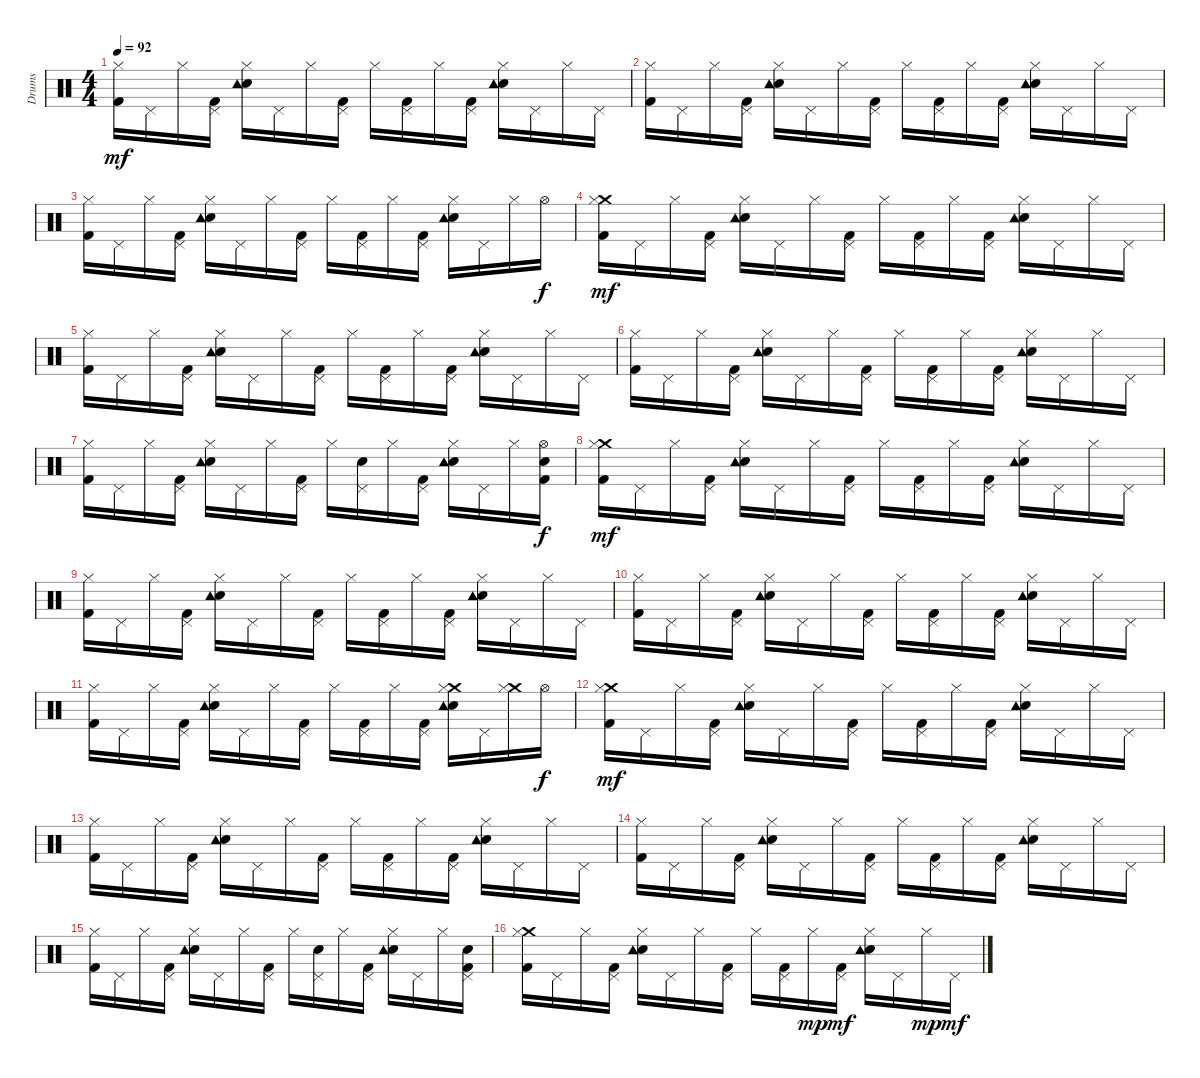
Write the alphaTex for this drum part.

\track ("Drums" "Drums") {instrument percussion}
\staff {score}
\articulation defaults
\ts (4 4)
\tempo 92
\clef neutral
\ks c
("Kick (hit) 2" "Hi-Hat (closed)").16{dy mf} "Pedal Hi-Hat (hit)".16 "Hi-Hat (closed)".16 ("Kick (hit) 2" "Pedal Hi-Hat (hit)").16 ("Electric Snare (hit)" "Hi-Hat (closed)" "Tambourine (hit)").16 "Pedal Hi-Hat (hit)".16 "Hi-Hat (closed)".16 ("Kick (hit) 2" "Pedal Hi-Hat (hit)").16 "Hi-Hat (closed)".16 ("Kick (hit) 2" "Pedal Hi-Hat (hit)").16 "Hi-Hat (closed)".16 ("Kick (hit) 2" "Pedal Hi-Hat (hit)").16 ("Electric Snare (hit)" "Hi-Hat (closed)" "Tambourine (hit)").16 "Pedal Hi-Hat (hit)".16 "Hi-Hat (closed)".16 "Pedal Hi-Hat (hit)".16 |
("Kick (hit) 2" "Hi-Hat (closed)").16 "Pedal Hi-Hat (hit)".16 "Hi-Hat (closed)".16 ("Kick (hit) 2" "Pedal Hi-Hat (hit)").16 ("Electric Snare (hit)" "Hi-Hat (closed)" "Tambourine (hit)").16 "Pedal Hi-Hat (hit)".16 "Hi-Hat (closed)".16 ("Kick (hit) 2" "Pedal Hi-Hat (hit)").16 "Hi-Hat (closed)".16 ("Kick (hit) 2" "Pedal Hi-Hat (hit)").16 "Hi-Hat (closed)".16 ("Kick (hit) 2" "Pedal Hi-Hat (hit)").16 ("Electric Snare (hit)" "Hi-Hat (closed)" "Tambourine (hit)").16 "Pedal Hi-Hat (hit)".16 "Hi-Hat (closed)".16 "Pedal Hi-Hat (hit)".16 |
("Kick (hit) 2" "Hi-Hat (closed)").16 "Pedal Hi-Hat (hit)".16 "Hi-Hat (closed)".16 ("Kick (hit) 2" "Pedal Hi-Hat (hit)").16 ("Electric Snare (hit)" "Hi-Hat (closed)" "Tambourine (hit)").16 "Pedal Hi-Hat (hit)".16 "Hi-Hat (closed)".16 ("Kick (hit) 2" "Pedal Hi-Hat (hit)").16 "Hi-Hat (closed)".16 ("Kick (hit) 2" "Pedal Hi-Hat (hit)").16 "Hi-Hat (closed)".16 ("Kick (hit) 2" "Pedal Hi-Hat (hit)").16 ("Electric Snare (hit)" "Hi-Hat (closed)" "Tambourine (hit)").16 "Pedal Hi-Hat (hit)".16 "Hi-Hat (closed)".16 "Hi-Hat (open)".16{dy f} |
("Kick (hit) 2" "Crash medium (hit)" "Hi-Hat (closed)").16{dy mf} "Pedal Hi-Hat (hit)".16 "Hi-Hat (closed)".16 ("Kick (hit) 2" "Pedal Hi-Hat (hit)").16 ("Electric Snare (hit)" "Hi-Hat (closed)" "Tambourine (hit)").16 "Pedal Hi-Hat (hit)".16 "Hi-Hat (closed)".16 ("Kick (hit) 2" "Pedal Hi-Hat (hit)").16 "Hi-Hat (closed)".16 ("Kick (hit) 2" "Pedal Hi-Hat (hit)").16 "Hi-Hat (closed)".16 ("Kick (hit) 2" "Pedal Hi-Hat (hit)").16 ("Electric Snare (hit)" "Hi-Hat (closed)" "Tambourine (hit)").16 "Pedal Hi-Hat (hit)".16 "Hi-Hat (closed)".16 "Pedal Hi-Hat (hit)".16 |
("Kick (hit) 2" "Hi-Hat (closed)").16 "Pedal Hi-Hat (hit)".16 "Hi-Hat (closed)".16 ("Kick (hit) 2" "Pedal Hi-Hat (hit)").16 ("Electric Snare (hit)" "Hi-Hat (closed)" "Tambourine (hit)").16 "Pedal Hi-Hat (hit)".16 "Hi-Hat (closed)".16 ("Kick (hit) 2" "Pedal Hi-Hat (hit)").16 "Hi-Hat (closed)".16 ("Kick (hit) 2" "Pedal Hi-Hat (hit)").16 "Hi-Hat (closed)".16 ("Kick (hit) 2" "Pedal Hi-Hat (hit)").16 ("Electric Snare (hit)" "Hi-Hat (closed)" "Tambourine (hit)").16 "Pedal Hi-Hat (hit)".16 "Hi-Hat (closed)".16 "Pedal Hi-Hat (hit)".16 |
("Kick (hit) 2" "Hi-Hat (closed)").16 "Pedal Hi-Hat (hit)".16 "Hi-Hat (closed)".16 ("Kick (hit) 2" "Pedal Hi-Hat (hit)").16 ("Electric Snare (hit)" "Hi-Hat (closed)" "Tambourine (hit)").16 "Pedal Hi-Hat (hit)".16 "Hi-Hat (closed)".16 ("Kick (hit) 2" "Pedal Hi-Hat (hit)").16 "Hi-Hat (closed)".16 ("Kick (hit) 2" "Pedal Hi-Hat (hit)").16 "Hi-Hat (closed)".16 ("Kick (hit) 2" "Pedal Hi-Hat (hit)").16 ("Electric Snare (hit)" "Hi-Hat (closed)" "Tambourine (hit)").16 "Pedal Hi-Hat (hit)".16 "Hi-Hat (closed)".16 "Pedal Hi-Hat (hit)".16 |
("Kick (hit) 2" "Hi-Hat (closed)").16 "Pedal Hi-Hat (hit)".16 "Hi-Hat (closed)".16 ("Kick (hit) 2" "Pedal Hi-Hat (hit)").16 ("Electric Snare (hit)" "Hi-Hat (closed)" "Tambourine (hit)").16 "Pedal Hi-Hat (hit)".16 "Hi-Hat (closed)".16 ("Kick (hit) 2" "Pedal Hi-Hat (hit)").16 "Hi-Hat (closed)".16 ("Electric Snare (hit)" "Pedal Hi-Hat (hit)").16 "Hi-Hat (closed)".16 ("Kick (hit) 2" "Pedal Hi-Hat (hit)").16 ("Electric Snare (hit)" "Hi-Hat (closed)" "Tambourine (hit)").16 "Pedal Hi-Hat (hit)".16 "Hi-Hat (closed)".16 ("Kick (hit) 2" "Hi-Hat (open)" "Electric Snare (hit)").16{dy f} |
("Kick (hit) 2" "Crash medium (hit)" "Hi-Hat (closed)").16{dy mf} "Pedal Hi-Hat (hit)".16 "Hi-Hat (closed)".16 ("Kick (hit) 2" "Pedal Hi-Hat (hit)").16 ("Electric Snare (hit)" "Hi-Hat (closed)" "Tambourine (hit)").16 "Pedal Hi-Hat (hit)".16 "Hi-Hat (closed)".16 ("Kick (hit) 2" "Pedal Hi-Hat (hit)").16 "Hi-Hat (closed)".16 ("Kick (hit) 2" "Pedal Hi-Hat (hit)").16 "Hi-Hat (closed)".16 ("Kick (hit) 2" "Pedal Hi-Hat (hit)").16 ("Electric Snare (hit)" "Hi-Hat (closed)" "Tambourine (hit)").16 "Pedal Hi-Hat (hit)".16 "Hi-Hat (closed)".16 "Pedal Hi-Hat (hit)".16 |
("Kick (hit) 2" "Hi-Hat (closed)").16 "Pedal Hi-Hat (hit)".16 "Hi-Hat (closed)".16 ("Kick (hit) 2" "Pedal Hi-Hat (hit)").16 ("Electric Snare (hit)" "Hi-Hat (closed)" "Tambourine (hit)").16 "Pedal Hi-Hat (hit)".16 "Hi-Hat (closed)".16 ("Kick (hit) 2" "Pedal Hi-Hat (hit)").16 "Hi-Hat (closed)".16 ("Kick (hit) 2" "Pedal Hi-Hat (hit)").16 "Hi-Hat (closed)".16 ("Kick (hit) 2" "Pedal Hi-Hat (hit)").16 ("Electric Snare (hit)" "Hi-Hat (closed)" "Tambourine (hit)").16 "Pedal Hi-Hat (hit)".16 "Hi-Hat (closed)".16 "Pedal Hi-Hat (hit)".16 |
("Kick (hit) 2" "Hi-Hat (closed)").16 "Pedal Hi-Hat (hit)".16 "Hi-Hat (closed)".16 ("Kick (hit) 2" "Pedal Hi-Hat (hit)").16 ("Electric Snare (hit)" "Hi-Hat (closed)" "Tambourine (hit)").16 "Pedal Hi-Hat (hit)".16 "Hi-Hat (closed)".16 ("Kick (hit) 2" "Pedal Hi-Hat (hit)").16 "Hi-Hat (closed)".16 ("Kick (hit) 2" "Pedal Hi-Hat (hit)").16 "Hi-Hat (closed)".16 ("Kick (hit) 2" "Pedal Hi-Hat (hit)").16 ("Electric Snare (hit)" "Hi-Hat (closed)" "Tambourine (hit)").16 "Pedal Hi-Hat (hit)".16 "Hi-Hat (closed)".16 "Pedal Hi-Hat (hit)".16 |
("Kick (hit) 2" "Hi-Hat (closed)").16 "Pedal Hi-Hat (hit)".16 "Hi-Hat (closed)".16 ("Kick (hit) 2" "Pedal Hi-Hat (hit)").16 ("Electric Snare (hit)" "Hi-Hat (closed)" "Tambourine (hit)").16 "Pedal Hi-Hat (hit)".16 "Hi-Hat (closed)".16 ("Kick (hit) 2" "Pedal Hi-Hat (hit)").16 "Hi-Hat (closed)".16 ("Kick (hit) 2" "Pedal Hi-Hat (hit)").16 "Hi-Hat (closed)".16 ("Kick (hit) 2" "Pedal Hi-Hat (hit)").16 ("Crash medium (hit)" "Electric Snare (hit)" "Hi-Hat (closed)" "Tambourine (hit)").16 "Pedal Hi-Hat (hit)".16 ("Crash medium (hit)" "Hi-Hat (closed)").16 "Hi-Hat (open)".16{dy f} |
("Kick (hit) 2" "Crash medium (hit)" "Hi-Hat (closed)").16{dy mf} "Pedal Hi-Hat (hit)".16 "Hi-Hat (closed)".16 ("Kick (hit) 2" "Pedal Hi-Hat (hit)").16 ("Electric Snare (hit)" "Hi-Hat (closed)" "Tambourine (hit)").16 "Pedal Hi-Hat (hit)".16 "Hi-Hat (closed)".16 ("Kick (hit) 2" "Pedal Hi-Hat (hit)").16 "Hi-Hat (closed)".16 ("Kick (hit) 2" "Pedal Hi-Hat (hit)").16 "Hi-Hat (closed)".16 ("Kick (hit) 2" "Pedal Hi-Hat (hit)").16 ("Electric Snare (hit)" "Hi-Hat (closed)" "Tambourine (hit)").16 "Pedal Hi-Hat (hit)".16 "Hi-Hat (closed)".16 "Pedal Hi-Hat (hit)".16 |
("Kick (hit) 2" "Hi-Hat (closed)").16 "Pedal Hi-Hat (hit)".16 "Hi-Hat (closed)".16 ("Kick (hit) 2" "Pedal Hi-Hat (hit)").16 ("Electric Snare (hit)" "Hi-Hat (closed)" "Tambourine (hit)").16 "Pedal Hi-Hat (hit)".16 "Hi-Hat (closed)".16 ("Kick (hit) 2" "Pedal Hi-Hat (hit)").16 "Hi-Hat (closed)".16 ("Kick (hit) 2" "Pedal Hi-Hat (hit)").16 "Hi-Hat (closed)".16 ("Kick (hit) 2" "Pedal Hi-Hat (hit)").16 ("Electric Snare (hit)" "Hi-Hat (closed)" "Tambourine (hit)").16 "Pedal Hi-Hat (hit)".16 "Hi-Hat (closed)".16 "Pedal Hi-Hat (hit)".16 |
("Kick (hit) 2" "Hi-Hat (closed)").16 "Pedal Hi-Hat (hit)".16 "Hi-Hat (closed)".16 ("Kick (hit) 2" "Pedal Hi-Hat (hit)").16 ("Electric Snare (hit)" "Hi-Hat (closed)" "Tambourine (hit)").16 "Pedal Hi-Hat (hit)".16 "Hi-Hat (closed)".16 ("Kick (hit) 2" "Pedal Hi-Hat (hit)").16 "Hi-Hat (closed)".16 ("Kick (hit) 2" "Pedal Hi-Hat (hit)").16 "Hi-Hat (closed)".16 ("Kick (hit) 2" "Pedal Hi-Hat (hit)").16 ("Electric Snare (hit)" "Hi-Hat (closed)" "Tambourine (hit)").16 "Pedal Hi-Hat (hit)".16 "Hi-Hat (closed)".16 "Pedal Hi-Hat (hit)".16 |
("Kick (hit) 2" "Hi-Hat (closed)").16 "Pedal Hi-Hat (hit)".16 "Hi-Hat (closed)".16 ("Kick (hit) 2" "Pedal Hi-Hat (hit)").16 ("Electric Snare (hit)" "Hi-Hat (closed)" "Tambourine (hit)").16 "Pedal Hi-Hat (hit)".16 "Hi-Hat (closed)".16 ("Kick (hit) 2" "Pedal Hi-Hat (hit)").16 "Hi-Hat (closed)".16 ("Electric Snare (hit)" "Pedal Hi-Hat (hit)").16 "Hi-Hat (closed)".16 ("Kick (hit) 2" "Pedal Hi-Hat (hit)").16 ("Electric Snare (hit)" "Hi-Hat (closed)" "Tambourine (hit)").16 "Pedal Hi-Hat (hit)".16 "Hi-Hat (closed)".16 ("Electric Snare (hit)" "Kick (hit) 2" "Pedal Hi-Hat (hit)").16 |
("Kick (hit) 2" "Crash medium (hit)" "Hi-Hat (closed)").16 "Pedal Hi-Hat (hit)".16 "Hi-Hat (closed)".16 ("Kick (hit) 2" "Pedal Hi-Hat (hit)").16 ("Electric Snare (hit)" "Hi-Hat (closed)" "Tambourine (hit)").16 "Pedal Hi-Hat (hit)".16 "Hi-Hat (closed)".16 ("Kick (hit) 2" "Pedal Hi-Hat (hit)").16 "Hi-Hat (closed)".16 ("Kick (hit) 2" "Pedal Hi-Hat (hit)").16 "Hi-Hat (closed)".16{dy mp} ("Kick (hit) 2" "Pedal Hi-Hat (hit)").16{dy mf} ("Electric Snare (hit)" "Hi-Hat (closed)" "Tambourine (hit)").16 "Pedal Hi-Hat (hit)".16 "Hi-Hat (closed)".16{dy mp} "Pedal Hi-Hat (hit)".16{dy mf}
